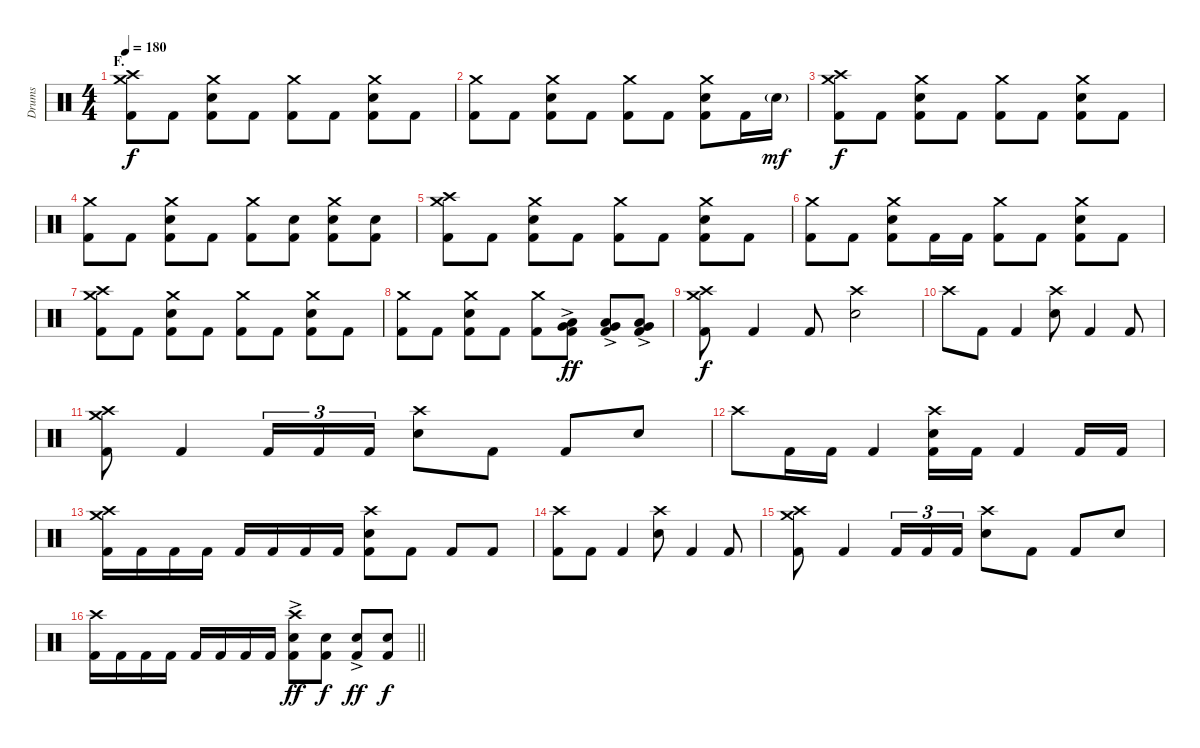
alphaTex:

\track ("Drums" "Drums") {instrument percussion}
\staff {score}
\articulation defaults
\ts (4 4)
\section ("" "F.")
\tempo 180
\clef neutral
\ks c
("Crash medium (hit)" "Crash high (hit)" "Kick (hit) 2").8{dy f} "Kick (hit) 2".8 ("Crash medium (hit)" "Electric Snare (hit)" "Kick (hit) 2").8 "Kick (hit) 2".8 ("Crash medium (hit)" "Kick (hit) 2").8 "Kick (hit) 2".8 ("Crash medium (hit)" "Electric Snare (hit)" "Kick (hit) 2").8 "Kick (hit) 2".8 |
("Crash medium (hit)" "Kick (hit) 2").8 "Kick (hit) 2".8 ("Crash medium (hit)" "Electric Snare (hit)" "Kick (hit) 2").8 "Kick (hit) 2".8 ("Crash medium (hit)" "Kick (hit) 2").8 "Kick (hit) 2".8 ("Crash medium (hit)" "Electric Snare (hit)" "Kick (hit) 2").8 "Kick (hit) 2".16 "Electric Snare (hit)"{g}.16{dy mf} |
("Crash medium (hit)" "Crash high (hit)" "Kick (hit) 2").8{dy f} "Kick (hit) 2".8 ("Crash medium (hit)" "Electric Snare (hit)" "Kick (hit) 2").8 "Kick (hit) 2".8 ("Crash medium (hit)" "Kick (hit) 2").8 "Kick (hit) 2".8 ("Crash medium (hit)" "Electric Snare (hit)" "Kick (hit) 2").8 "Kick (hit) 2".8 |
("Crash medium (hit)" "Kick (hit) 2").8 "Kick (hit) 2".8 ("Crash medium (hit)" "Electric Snare (hit)" "Kick (hit) 2").8 "Kick (hit) 2".8 ("Crash medium (hit)" "Kick (hit) 2").8 ("Electric Snare (hit)" "Kick (hit) 2").8 ("Crash medium (hit)" "Electric Snare (hit)" "Kick (hit) 2").8 ("Electric Snare (hit)" "Kick (hit) 2").8 |
("Crash medium (hit)" "Crash high (hit)" "Kick (hit) 2").8 "Kick (hit) 2".8 ("Crash medium (hit)" "Electric Snare (hit)" "Kick (hit) 2").8 "Kick (hit) 2".8 ("Crash medium (hit)" "Kick (hit) 2").8 "Kick (hit) 2".8 ("Crash medium (hit)" "Electric Snare (hit)" "Kick (hit) 2").8 "Kick (hit) 2".8 |
("Crash medium (hit)" "Kick (hit) 2").8 "Kick (hit) 2".8 ("Crash medium (hit)" "Electric Snare (hit)" "Kick (hit) 2").8 "Kick (hit) 2".16 "Kick (hit) 2".16 ("Crash medium (hit)" "Kick (hit) 2").8 "Kick (hit) 2".8 ("Crash medium (hit)" "Electric Snare (hit)" "Kick (hit) 2").8 "Kick (hit) 2".8 |
("Crash medium (hit)" "Crash high (hit)" "Kick (hit) 2").8 "Kick (hit) 2".8 ("Crash medium (hit)" "Electric Snare (hit)" "Kick (hit) 2").8 "Kick (hit) 2".8 ("Crash medium (hit)" "Kick (hit) 2").8 "Kick (hit) 2".8 ("Crash medium (hit)" "Electric Snare (hit)" "Kick (hit) 2").8 "Kick (hit) 2".8 |
("Crash medium (hit)" "Kick (hit) 2").8 "Kick (hit) 2".8 ("Crash medium (hit)" "Electric Snare (hit)" "Kick (hit) 2").8 "Kick (hit) 2".8 ("Crash medium (hit)" "Kick (hit) 2").8 ("Very Low Tom (hit)" "Low Floor Tom (hit)"{ac} "Kick (hit) 2").8{dy ff} ("Very Low Tom (hit)" "Low Floor Tom (hit)"{ac} "Kick (hit) 2").8 ("Very Low Tom (hit)" "Low Floor Tom (hit)"{ac} "Kick (hit) 2").8 |
("Crash medium (hit)" "Crash high (hit)" "Kick (hit) 2").8{dy f} "Kick (hit) 2".4 "Kick (hit) 2".8 ("Crash high (hit)" "Electric Snare (hit)").2 |
"Crash high (hit)".8 "Kick (hit) 2".8 "Kick (hit) 2".4 ("Crash high (hit)" "Electric Snare (hit)").8 "Kick (hit) 2".4 "Kick (hit) 2".8 |
("Crash medium (hit)" "Crash high (hit)" "Kick (hit) 2").8 "Kick (hit) 2".4 "Kick (hit) 2".16{tu (3 2)} "Kick (hit) 2".16{tu (3 2)} "Kick (hit) 2".16{tu (3 2)} ("Crash high (hit)" "Electric Snare (hit)").8 "Kick (hit) 2".8 "Kick (hit) 2".8 "Electric Snare (hit)".8 |
"Crash high (hit)".8 "Kick (hit) 2".16 "Kick (hit) 2".16 "Kick (hit) 2".4 ("Crash high (hit)" "Electric Snare (hit)" "Kick (hit) 2").16 "Kick (hit) 2".16 "Kick (hit) 2".4 "Kick (hit) 2".16 "Kick (hit) 2".16 |
("Crash medium (hit)" "Crash high (hit)" "Kick (hit) 2").16 "Kick (hit) 2".16 "Kick (hit) 2".16 "Kick (hit) 2".16 "Kick (hit) 2".16 "Kick (hit) 2".16 "Kick (hit) 2".16 "Kick (hit) 2".16 ("Crash high (hit)" "Electric Snare (hit)" "Kick (hit) 2").8 "Kick (hit) 2".8 "Kick (hit) 2".8 "Kick (hit) 2".8 |
("Crash high (hit)" "Kick (hit) 2").8 "Kick (hit) 2".8 "Kick (hit) 2".4 ("Crash high (hit)" "Electric Snare (hit)").8 "Kick (hit) 2".4 "Kick (hit) 2".8 |
("Crash medium (hit)" "Crash high (hit)" "Kick (hit) 2").8 "Kick (hit) 2".4 "Kick (hit) 2".16{tu (3 2)} "Kick (hit) 2".16{tu (3 2)} "Kick (hit) 2".16{tu (3 2)} ("Crash high (hit)" "Electric Snare (hit)").8 "Kick (hit) 2".8 "Kick (hit) 2".8 "Electric Snare (hit)".8 |
\barLineRight lightlight
("Crash high (hit)" "Kick (hit) 2").16 "Kick (hit) 2".16 "Kick (hit) 2".16 "Kick (hit) 2".16 "Kick (hit) 2".16 "Kick (hit) 2".16 "Kick (hit) 2".16 "Kick (hit) 2".16 ("Crash high (hit)" "Electric Snare (hit)"{ac} "Kick (hit) 2").8{dy ff} ("Electric Snare (hit)" "Kick (hit) 2").8{dy f} ("Electric Snare (hit)"{ac} "Kick (hit) 2").8{dy ff} ("Electric Snare (hit)" "Kick (hit) 2").8{dy f}
